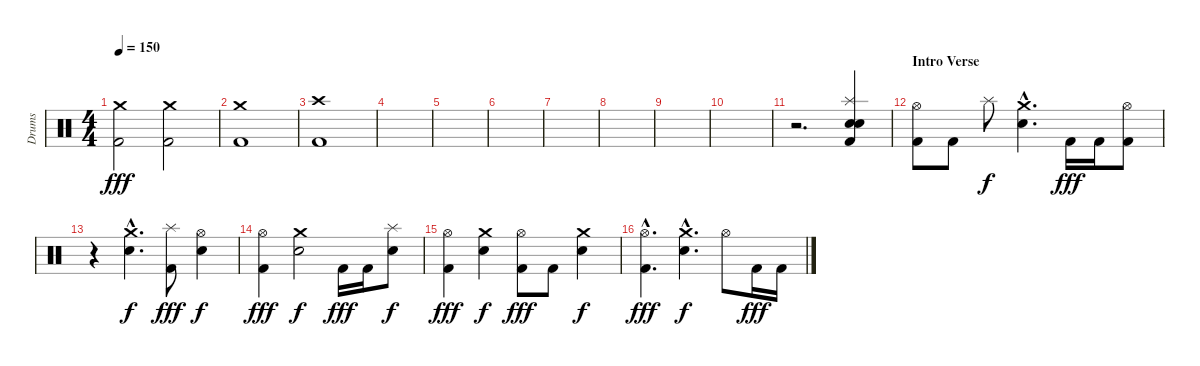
\track ("Drums" "Drums") {instrument percussion}
\staff {score}
\articulation defaults
\ts (4 4)
\tempo 150
\clef neutral
\ks c
("Crash medium (hit)" "Kick (hit) 2").2{dy fff} ("Crash medium (hit)" "Kick (hit) 2").2 |
("Crash medium (hit)" "Kick (hit) 2").1 |
("Crash high (hit)" "Kick (hit) 2").1 |
|
|
|
|
|
|
|
r.2{d} ("Splash (hit)" "Electric Snare (hit)" "Electric Snare (hit)" "Kick (hit) 2").4{bd 120} |
\section ("" "Intro Verse")
("Hi-Hat (open)" "Kick (hit) 2").8 "Kick (hit) 2".8 "Splash (hit)".8{dy f} ("Crash medium (hit)"{hac} "Electric Snare (hit)"{hac}).4{d} "Kick (hit) 2".16{dy fff} "Kick (hit) 2".16 ("Hi-Hat (open)" "Kick (hit) 2").8 |
r.4 ("Crash medium (hit)"{hac} "Electric Snare (hit)"{hac}).4{d dy f} ("Splash (hit)" "Kick (hit) 2").8{dy fff} ("Hi-Hat (open)" "Electric Snare (hit)").4{dy f} |
("Hi-Hat (open)" "Kick (hit) 2").4{dy fff} ("Crash medium (hit)" "Electric Snare (hit)").2{dy f} "Kick (hit) 2".16{dy fff} "Kick (hit) 2".16 ("Splash (hit)" "Electric Snare (hit)").8{dy f} |
("Hi-Hat (open)" "Kick (hit) 2").4{dy fff} ("Crash medium (hit)" "Electric Snare (hit)").4{dy f} ("Hi-Hat (open)" "Kick (hit) 2").8{dy fff} "Kick (hit) 2".8 ("Crash medium (hit)" "Electric Snare (hit)").4{dy f} |
("Hi-Hat (open)"{hac} "Kick (hit) 2"{hac}).4{d dy fff} ("Crash medium (hit)"{hac} "Electric Snare (hit)"{hac}).4{d dy f} "Hi-Hat (open)".8 "Kick (hit) 2".16{dy fff} "Kick (hit) 2".16
